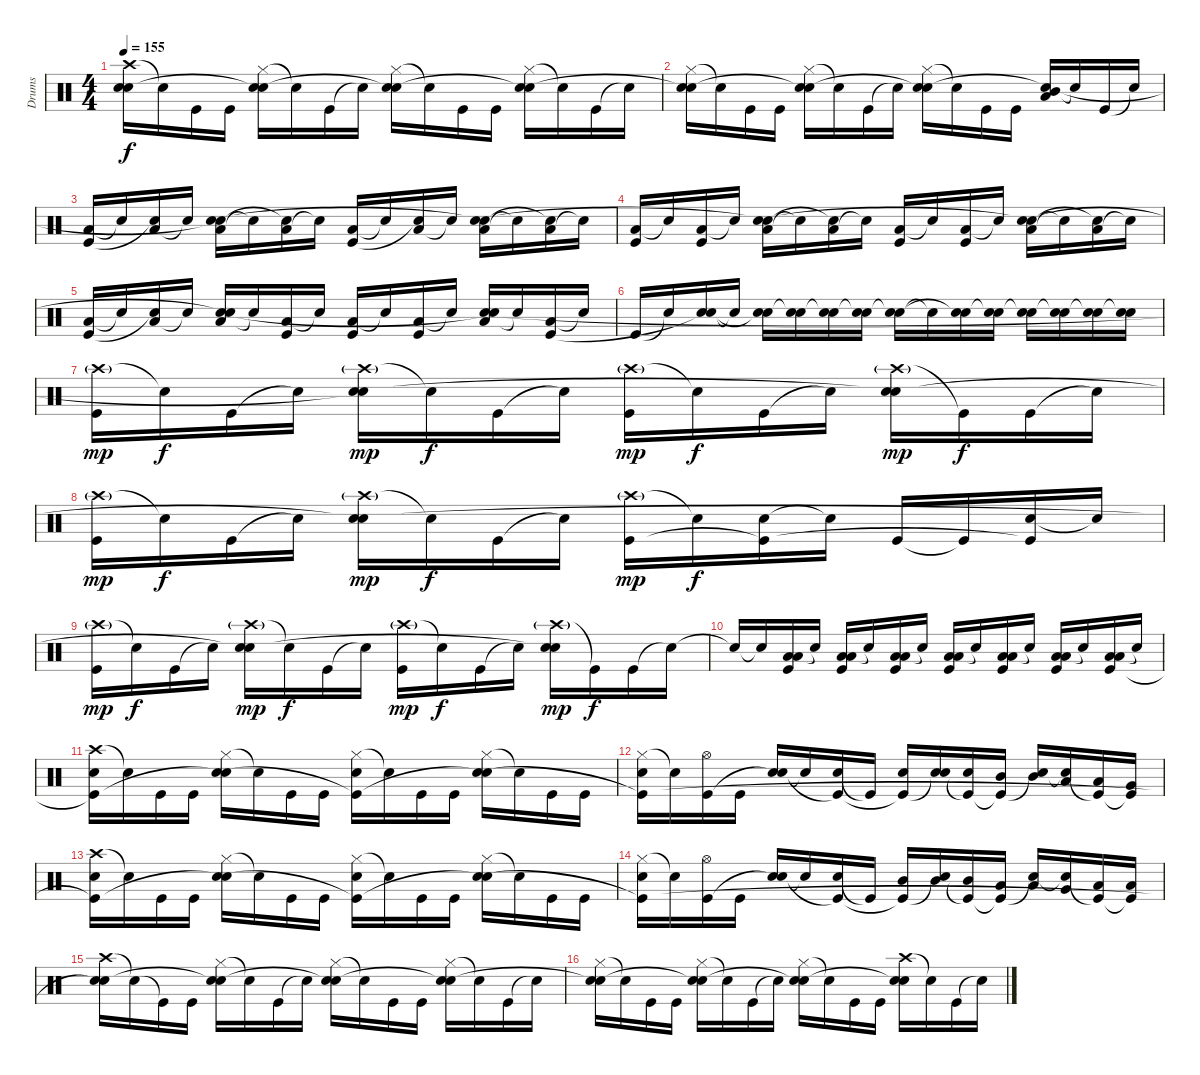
\track ("Drums" "Drums") {instrument percussion}
\staff {score}
\articulation defaults
\ts (4 4)
\tempo 155
\clef neutral
\ks c
("Crash high (hit)" "Electric Snare (hit)" "Snare (hit)"{t}).16{dy f} "Snare (hit)"{t}.16 "Kick (hit)".16 "Kick (hit)".16 ("Hi-Hat (closed)" "Electric Snare (hit)" "Snare (hit)"{t}).16 "Snare (hit)"{t}.16 "Kick (hit)".16 "Snare (hit)"{t}.16 ("Hi-Hat (closed)" "Electric Snare (hit)" "Snare (hit)"{t}).16 "Snare (hit)"{t}.16 "Kick (hit)".16 "Kick (hit)".16 ("Hi-Hat (closed)" "Electric Snare (hit)" "Snare (hit)"{t}).16 "Snare (hit)"{t}.16 "Kick (hit)".16 "Snare (hit)"{t}.16 |
("Hi-Hat (closed)" "Electric Snare (hit)" "Snare (hit)"{t}).16 "Snare (hit)"{t}.16 "Kick (hit)".16 "Kick (hit)".16 ("Hi-Hat (closed)" "Electric Snare (hit)" "Snare (hit)"{t}).16 "Snare (hit)"{t}.16 "Kick (hit)".16 "Snare (hit)"{t}.16 ("Hi-Hat (closed)" "Electric Snare (hit)" "Snare (hit)"{t}).16 "Snare (hit)"{t}.16 "Kick (hit)".16 "Kick (hit)".16 ("Mid Tom (hit)" "Low Tom (hit)" "Snare (hit)"{t}).16 "Snare (hit)"{t}.16 "Kick (hit)".16 "Snare (hit)"{t}.16 |
("Low Tom (hit)" "Kick (hit)").16 "Snare (hit)"{t}.16 ("Low Tom (hit)" "Snare (hit)"{t}).16 "Snare (hit)"{t}.16 ("Low Tom (hit)" "Electric Snare (hit)" "Snare (hit)"{t}).16 "Snare (hit)"{t}.16 ("Low Tom (hit)" "Snare (hit)"{t}).16 "Snare (hit)"{t}.16 ("Low Tom (hit)" "Kick (hit)").16 "Snare (hit)"{t}.16 ("Low Tom (hit)" "Snare (hit)"{t}).16 "Snare (hit)"{t}.16 ("Low Tom (hit)" "Electric Snare (hit)" "Snare (hit)"{t}).16 "Snare (hit)"{t}.16 ("Low Tom (hit)" "Snare (hit)"{t}).16 "Snare (hit)"{t}.16 |
("Low Tom (hit)" "Kick (hit)").16 "Snare (hit)"{t}.16 ("Low Tom (hit)" "Kick (hit)").16 "Snare (hit)"{t}.16 ("Low Tom (hit)" "Electric Snare (hit)" "Snare (hit)"{t}).16 "Snare (hit)"{t}.16 ("Low Tom (hit)" "Snare (hit)"{t}).16 "Snare (hit)"{t}.16 ("Low Tom (hit)" "Kick (hit)").16 "Snare (hit)"{t}.16 ("Low Tom (hit)" "Kick (hit)").16 "Snare (hit)"{t}.16 ("Low Tom (hit)" "Electric Snare (hit)" "Snare (hit)"{t}).16 "Snare (hit)"{t}.16 ("Low Tom (hit)" "Snare (hit)"{t}).16 "Snare (hit)"{t}.16 |
("Low Tom (hit)" "Kick (hit)").16 "Snare (hit)"{t}.16 ("Low Tom (hit)" "Snare (hit)"{t}).16 "Snare (hit)"{t}.16 ("Low Tom (hit)" "Electric Snare (hit)" "Snare (hit)"{t}).16 "Snare (hit)"{t}.16 ("Low Tom (hit)" "Kick (hit)").16 "Snare (hit)"{t}.16 ("Low Tom (hit)" "Kick (hit)").16 "Snare (hit)"{t}.16 ("Low Tom (hit)" "Kick (hit)").16 "Snare (hit)"{t}.16 ("Low Tom (hit)" "Electric Snare (hit)" "Snare (hit)"{t}).16 "Snare (hit)"{t}.16 ("Low Tom (hit)" "Kick (hit)").16 "Snare (hit)"{t}.16 |
"Kick (hit)".16 "Snare (hit)"{t}.16 ("Electric Snare (hit)" "Snare (hit)"{t}).16 "Snare (hit)"{t}.16 ("Electric Snare (hit)" "Snare (hit)"{t}).16 ("Electric Snare (hit)" "Snare (hit)"{t}).16 ("Electric Snare (hit)" "Snare (hit)"{t}).16 ("Electric Snare (hit)" "Snare (hit)"{t}).16 ("Electric Snare (hit)" "Snare (hit)"{t}).16 "Snare (hit)"{t}.16 ("Electric Snare (hit)" "Snare (hit)"{t}).16 ("Electric Snare (hit)" "Snare (hit)"{t}).16 ("Electric Snare (hit)" "Snare (hit)"{t}).16 ("Electric Snare (hit)" "Snare (hit)"{t}).16 ("Electric Snare (hit)" "Snare (hit)"{t}).16 ("Electric Snare (hit)" "Snare (hit)"{t}).16 |
("Crash high (hit)"{g} "Kick (hit)").16{dy mp} "Snare (hit)"{t}.16{dy f} "Kick (hit)".16 "Snare (hit)"{t}.16 ("Crash high (hit)"{g} "Electric Snare (hit)" "Snare (hit)"{t}).16{dy mp} "Snare (hit)"{t}.16{dy f} "Kick (hit)".16 "Snare (hit)"{t}.16 ("Crash high (hit)"{g} "Kick (hit)").16{dy mp} "Snare (hit)"{t}.16{dy f} "Kick (hit)".16 "Snare (hit)"{t}.16 ("Crash high (hit)"{g} "Electric Snare (hit)" "Snare (hit)"{t}).16{dy mp} "Kick (hit)"{t}.16{dy f} "Kick (hit)".16 "Snare (hit)"{t}.16 |
("Crash high (hit)"{g} "Kick (hit)").16{dy mp} "Snare (hit)"{t}.16{dy f} "Kick (hit)".16 "Snare (hit)"{t}.16 ("Crash high (hit)"{g} "Electric Snare (hit)" "Snare (hit)"{t}).16{dy mp} "Snare (hit)"{t}.16{dy f} "Kick (hit)".16 "Snare (hit)"{t}.16 ("Crash high (hit)"{g} "Kick (hit)").16{dy mp} "Snare (hit)"{t}.16{dy f} ("Electric Snare (hit)" "Kick (hit)"{t}).16 "Snare (hit)"{t}.16 "Kick (hit)".16 "Kick (hit)"{t}.16 ("Electric Snare (hit)" "Kick (hit)"{t}).16 "Snare (hit)"{t}.16 |
("Crash high (hit)"{g} "Kick (hit)").16{dy mp} "Snare (hit)"{t}.16{dy f} "Kick (hit)".16 "Snare (hit)"{t}.16 ("Crash high (hit)"{g} "Electric Snare (hit)" "Snare (hit)"{t}).16{dy mp} "Snare (hit)"{t}.16{dy f} "Kick (hit)".16 "Snare (hit)"{t}.16 ("Crash high (hit)"{g} "Kick (hit)").16{dy mp} "Snare (hit)"{t}.16{dy f} "Kick (hit)".16 "Snare (hit)"{t}.16 ("Crash high (hit)"{g} "Electric Snare (hit)" "Snare (hit)"{t}).16{dy mp} "Kick (hit)"{t}.16{dy f} "Kick (hit)".16 "Snare (hit)"{t}.16 |
"Snare (hit)"{t}.16 "Snare (hit)"{t}.16 ("Low Floor Tom (hit)" "Low Tom (hit)" "Kick (hit)").16 "Snare (hit)"{t}.16 ("Low Floor Tom (hit)" "Low Tom (hit)" "Kick (hit)").16 "Snare (hit)"{t}.16 ("Low Floor Tom (hit)" "Low Tom (hit)" "Kick (hit)").16 "Snare (hit)"{t}.16 ("Low Floor Tom (hit)" "Low Tom (hit)" "Kick (hit)").16 "Snare (hit)"{t}.16 ("Low Floor Tom (hit)" "Low Tom (hit)" "Kick (hit)").16 "Snare (hit)"{t}.16 ("Low Floor Tom (hit)" "Low Tom (hit)" "Kick (hit)").16 "Snare (hit)"{t}.16 ("Low Floor Tom (hit)" "Low Tom (hit)" "Kick (hit)").16 "Snare (hit)"{t}.16 |
("Crash high (hit)" "Electric Snare (hit)" "Kick (hit)"{t}).16 "Snare (hit)"{t}.16 "Kick (hit)".16 "Kick (hit)".16 ("Hi-Hat (closed)" "Electric Snare (hit)" "Snare (hit)"{t}).16 "Snare (hit)"{t}.16 "Kick (hit)".16 "Kick (hit)".16 ("Hi-Hat (closed)" "Electric Snare (hit)" "Kick (hit)"{t}).16 "Snare (hit)"{t}.16 "Kick (hit)".16 "Kick (hit)".16 ("Hi-Hat (closed)" "Electric Snare (hit)" "Snare (hit)"{t}).16 "Snare (hit)"{t}.16 "Kick (hit)".16 "Kick (hit)".16 |
("Hi-Hat (closed)" "Electric Snare (hit)" "Kick (hit)"{t}).16 "Snare (hit)"{t}.16 ("Hi-Hat (open)" "Kick (hit)").16 "Kick (hit)".16 ("Electric Snare (hit)" "Snare (hit)"{t}).16 "Snare (hit)"{t}.16 ("Electric Snare (hit)" "Kick (hit)"{t}).16 "Kick (hit)"{t}.16 ("Electric Snare (hit)" "Kick (hit)"{t}).16 ("Electric Snare (hit)" "Snare (hit)"{t}).16 ("Electric Snare (hit)" "Kick (hit)"{t}).16 ("Mid Tom (hit)" "Kick (hit)"{t}).16 ("Mid Tom (hit)" "Snare (hit)"{t}).16 ("Low Tom (hit)" "Snare (hit)"{t}).16 ("Low Tom (hit)" "Kick (hit)"{t}).16 ("Very Low Tom (hit)" "Kick (hit)"{t}).16 |
("Crash high (hit)" "Electric Snare (hit)" "Kick (hit)"{t}).16 "Snare (hit)"{t}.16 "Kick (hit)".16 "Kick (hit)".16 ("Hi-Hat (closed)" "Electric Snare (hit)" "Snare (hit)"{t}).16 "Snare (hit)"{t}.16 "Kick (hit)".16 "Kick (hit)".16 ("Hi-Hat (closed)" "Electric Snare (hit)" "Kick (hit)"{t}).16 "Snare (hit)"{t}.16 "Kick (hit)".16 "Kick (hit)".16 ("Hi-Hat (closed)" "Electric Snare (hit)" "Snare (hit)"{t}).16 "Snare (hit)"{t}.16 "Kick (hit)".16 "Kick (hit)".16 |
("Hi-Hat (closed)" "Electric Snare (hit)" "Kick (hit)"{t}).16 "Snare (hit)"{t}.16 ("Hi-Hat (open)" "Kick (hit)").16 "Kick (hit)".16 ("Electric Snare (hit)" "Snare (hit)"{t}).16 "Snare (hit)"{t}.16 ("Electric Snare (hit)" "Kick (hit)"{t}).16 "Kick (hit)"{t}.16 ("Mid Tom (hit)" "Kick (hit)"{t}).16 ("Mid Tom (hit)" "Snare (hit)"{t}).16 ("Mid Tom (hit)" "Kick (hit)"{t}).16 ("Low Tom (hit)" "Kick (hit)"{t}).16 ("Low Tom (hit)" "Snare (hit)"{t}).16 ("Very Low Tom (hit)" "Snare (hit)"{t}).16 ("Low Floor Tom (hit)" "Kick (hit)"{t}).16 ("Low Floor Tom (hit)" "Kick (hit)"{t}).16 |
("Crash high (hit)" "Electric Snare (hit)" "Snare (hit)"{t}).16 "Snare (hit)"{t}.16 "Kick (hit)"{t}.16 "Kick (hit)".16 ("Hi-Hat (closed)" "Electric Snare (hit)" "Snare (hit)"{t}).16 "Snare (hit)"{t}.16 "Kick (hit)".16 "Snare (hit)"{t}.16 ("Hi-Hat (closed)" "Electric Snare (hit)" "Snare (hit)"{t}).16 "Snare (hit)"{t}.16 "Kick (hit)".16 "Kick (hit)".16 ("Hi-Hat (closed)" "Electric Snare (hit)" "Snare (hit)"{t}).16 "Snare (hit)"{t}.16 "Kick (hit)".16 "Snare (hit)"{t}.16 |
("Hi-Hat (closed)" "Electric Snare (hit)" "Snare (hit)"{t}).16 "Snare (hit)"{t}.16 "Kick (hit)".16 "Kick (hit)".16 ("Hi-Hat (closed)" "Electric Snare (hit)" "Snare (hit)"{t}).16 "Snare (hit)"{t}.16 "Kick (hit)".16 "Snare (hit)"{t}.16 ("Hi-Hat (closed)" "Electric Snare (hit)" "Snare (hit)"{t}).16 "Snare (hit)"{t}.16 "Kick (hit)".16 "Kick (hit)".16 ("Crash high (hit)" "Electric Snare (hit)" "Snare (hit)"{t}).16 "Snare (hit)"{t}.16 "Kick (hit)".16 "Snare (hit)"{t}.16
